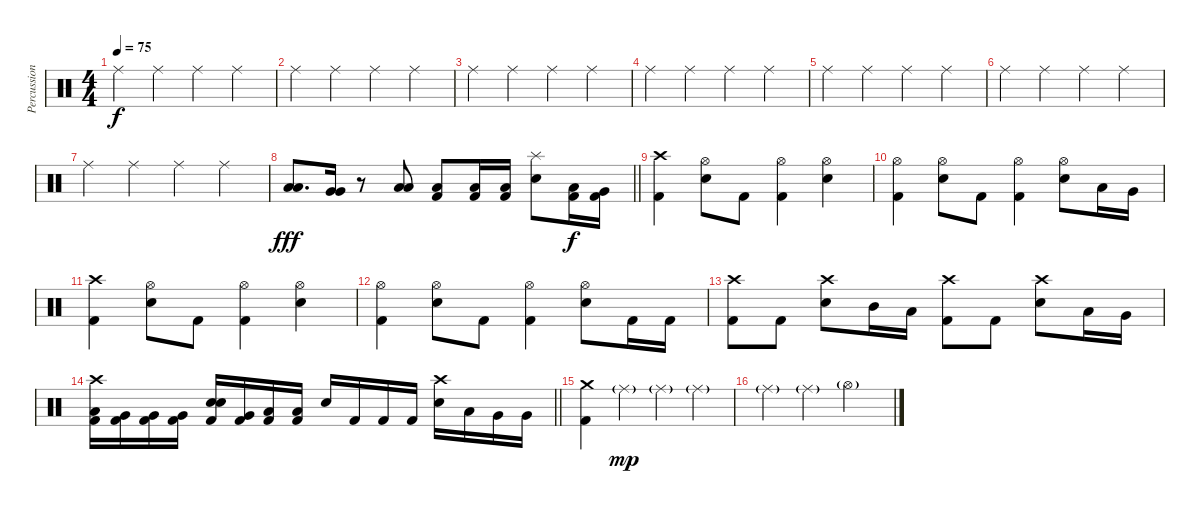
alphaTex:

\track ("Percussions" "Percussion") {instrument percussion}
\staff {score}
\articulation defaults
\ts (4 4)
\tempo 75
\clef neutral
\ks c "Ride (middle)".4{dy f} "Ride (middle)".4 "Ride (middle)".4 "Ride (middle)".4
|
"Ride (middle)".4 "Ride (middle)".4 "Ride (middle)".4 "Ride (middle)".4 |
"Ride (middle)".4 "Ride (middle)".4 "Ride (middle)".4 "Ride (middle)".4 |
"Ride (middle)".4 "Ride (middle)".4 "Ride (middle)".4 "Ride (middle)".4 |
"Ride (middle)".4 "Ride (middle)".4 "Ride (middle)".4 "Ride (middle)".4 |
"Ride (middle)".4 "Ride (middle)".4 "Ride (middle)".4 "Ride (middle)".4 |
"Ride (middle)".4 "Ride (middle)".4 "Ride (middle)".4 "Ride (middle)".4 |
\barLineRight lightlight
("Low Tom (hit)" "Low Tom (hit)").8{d dy fff} ("Very Low Tom (hit)" "Very Low Tom (hit)").16 r.8 ("Low Floor Tom (hit)" "Low Floor Tom (hit)").8 ("Low Floor Tom (hit)" "Kick (hit) 2").8 ("Low Floor Tom (hit)" "Kick (hit) 2").16 ("Low Floor Tom (hit)" "Kick (hit) 2").16 ("Splash (hit)" "Electric Snare (hit)").8 ("Low Tom (hit)" "Kick (hit) 2").16{dy f} ("Very Low Tom (hit)" "Kick (hit) 2").16 |
("Crash high (hit)" "Kick (hit) 2").4 ("Hi-Hat (open)" "Electric Snare (hit)").8 "Kick (hit) 2".8 ("Hi-Hat (open)" "Kick (hit) 2").4 ("Hi-Hat (open)" "Electric Snare (hit)").4 |
("Hi-Hat (open)" "Kick (hit) 2").4 ("Hi-Hat (open)" "Electric Snare (hit)").8 "Kick (hit) 2".8 ("Hi-Hat (open)" "Kick (hit) 2").4 ("Hi-Hat (open)" "Electric Snare (hit)").8 "Low Tom (hit)".16 "Very Low Tom (hit)".16 |
("Crash high (hit)" "Kick (hit) 2").4 ("Hi-Hat (open)" "Electric Snare (hit)").8 "Kick (hit) 2".8 ("Hi-Hat (open)" "Kick (hit) 2").4 ("Hi-Hat (open)" "Electric Snare (hit)").4 |
("Hi-Hat (open)" "Kick (hit) 2").4 ("Hi-Hat (open)" "Electric Snare (hit)").8 "Kick (hit) 2".8 ("Hi-Hat (open)" "Kick (hit) 2").4 ("Hi-Hat (open)" "Electric Snare (hit)").8 "Kick (hit) 2".16 "Kick (hit) 2".16 |
("Crash high (hit)" "Kick (hit) 2").8 "Kick (hit) 2".8 ("Crash high (hit)" "Electric Snare (hit)").8 "Mid Tom (hit)".16 "Low Tom (hit)".16 ("Crash high (hit)" "Kick (hit) 2").8 "Kick (hit) 2".8 ("Crash high (hit)" "Electric Snare (hit)").8 "Low Tom (hit)".16 "Very Low Tom (hit)".16 |
\barLineRight lightlight
("Crash high (hit)" "Low Tom (hit)" "Kick (hit) 2").16 ("Very Low Tom (hit)" "Kick (hit) 2").16 ("Very Low Tom (hit)" "Kick (hit) 2").16 ("Very Low Tom (hit)" "Kick (hit) 2").16 ("Electric Snare (hit)" "Electric Snare (hit)" "Kick (hit) 2").16 ("Very Low Tom (hit)" "Kick (hit) 2").16 ("Low Floor Tom (hit)" "Kick (hit) 2").16 ("Low Floor Tom (hit)" "Kick (hit) 2").16 "Electric Snare (hit)".16 "Kick (hit) 2".16 "Kick (hit) 2".16 "Kick (hit) 2".16 ("Crash high (hit)" "Electric Snare (hit)").16 "Low Tom (hit)".16 "Very Low Tom (hit)".16 "Very Low Tom (hit)".16 |
("Crash medium (hit)" "Kick (hit) 2").4 "Ride (middle)"{g}.4{dy mp} "Ride (middle)"{g}.4 "Ride (middle)"{g}.4 |
"Ride (middle)"{g}.4 "Ride (middle)"{g}.4 "Hi-Hat (open)"{g}.2
